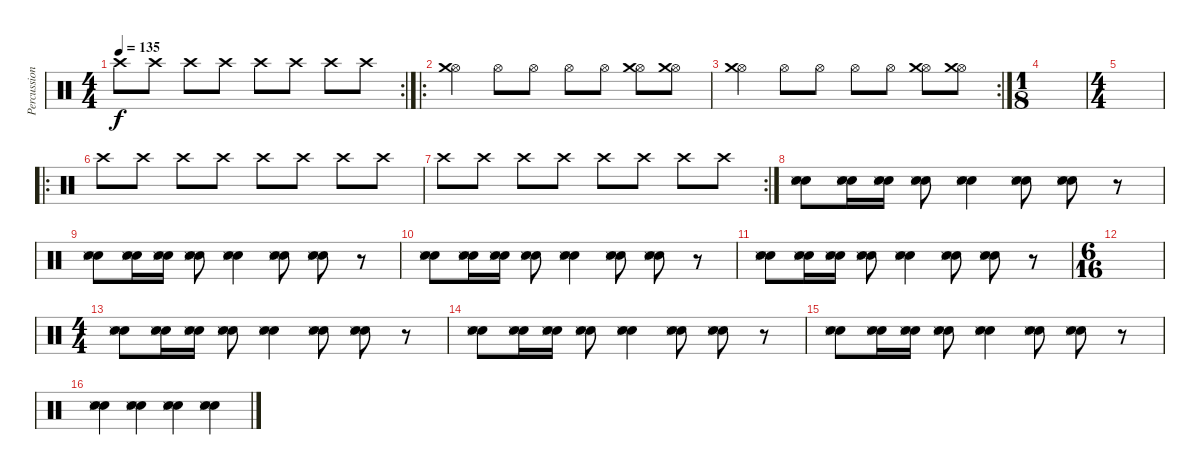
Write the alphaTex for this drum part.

\track ("Percussion" "Percussion") {instrument percussion}
\staff {score}
\articulation defaults
\rc 2
\ts (4 4)
\tempo 135
\clef neutral
\ks c "Crash high (hit)".8{dy f} "Crash high (hit)".8 "Crash high (hit)".8 "Crash high (hit)".8 "Crash high (hit)".8 "Crash high (hit)".8 "Crash high (hit)".8 "Crash high (hit)".8
|
\ro
("Hi-Hat (open)" "Crash medium (hit)").4 "Hi-Hat (open)".8 "Hi-Hat (open)".8 "Hi-Hat (open)".8 "Hi-Hat (open)".8 ("Hi-Hat (open)" "Crash medium (hit)").8 ("Hi-Hat (open)" "Crash medium (hit)").8 |
\rc 2
("Hi-Hat (open)" "Crash medium (hit)").4 "Hi-Hat (open)".8 "Hi-Hat (open)".8 "Hi-Hat (open)".8 "Hi-Hat (open)".8 ("Hi-Hat (open)" "Crash medium (hit)").8 ("Hi-Hat (open)" "Crash medium (hit)").8 |
\ts (1 8)
|
\ts (4 4)
|
\ro "Crash high (hit)".8 "Crash high (hit)".8 "Crash high (hit)".8 "Crash high (hit)".8 "Crash high (hit)".8 "Crash high (hit)".8 "Crash high (hit)".8 "Crash high (hit)".8
|
\rc 2 "Crash high (hit)".8 "Crash high (hit)".8 "Crash high (hit)".8 "Crash high (hit)".8 "Crash high (hit)".8 "Crash high (hit)".8 "Crash high (hit)".8 "Crash high (hit)".8
|
("Snare (hit) 2" "Electric Snare (hit)" "Snare (side stick) 3").8 ("Snare (hit) 2" "Electric Snare (hit)" "Snare (side stick) 3").16 ("Snare (hit) 2" "Electric Snare (hit)" "Snare (side stick) 3").16 ("Snare (hit) 2" "Electric Snare (hit)" "Snare (side stick) 3").8 ("Snare (hit) 2" "Electric Snare (hit)" "Snare (side stick) 3").4 ("Snare (hit) 2" "Electric Snare (hit)" "Snare (side stick) 3").8 ("Snare (hit) 2" "Electric Snare (hit)" "Snare (side stick) 3").8 r.8 |
("Snare (hit) 2" "Electric Snare (hit)" "Snare (side stick) 3").8 ("Snare (hit) 2" "Electric Snare (hit)" "Snare (side stick) 3").16 ("Snare (hit) 2" "Electric Snare (hit)" "Snare (side stick) 3").16 ("Snare (hit) 2" "Electric Snare (hit)" "Snare (side stick) 3").8 ("Snare (hit) 2" "Electric Snare (hit)" "Snare (side stick) 3").4 ("Snare (hit) 2" "Electric Snare (hit)" "Snare (side stick) 3").8 ("Snare (hit) 2" "Electric Snare (hit)" "Snare (side stick) 3").8 r.8 |
("Snare (hit) 2" "Electric Snare (hit)" "Snare (side stick) 3").8 ("Snare (hit) 2" "Electric Snare (hit)" "Snare (side stick) 3").16 ("Snare (hit) 2" "Electric Snare (hit)" "Snare (side stick) 3").16 ("Snare (hit) 2" "Electric Snare (hit)" "Snare (side stick) 3").8 ("Snare (hit) 2" "Electric Snare (hit)" "Snare (side stick) 3").4 ("Snare (hit) 2" "Electric Snare (hit)" "Snare (side stick) 3").8 ("Snare (hit) 2" "Electric Snare (hit)" "Snare (side stick) 3").8 r.8 |
("Snare (hit) 2" "Electric Snare (hit)" "Snare (side stick) 3").8 ("Snare (hit) 2" "Electric Snare (hit)" "Snare (side stick) 3").16 ("Snare (hit) 2" "Electric Snare (hit)" "Snare (side stick) 3").16 ("Snare (hit) 2" "Electric Snare (hit)" "Snare (side stick) 3").8 ("Snare (hit) 2" "Electric Snare (hit)" "Snare (side stick) 3").4 ("Snare (hit) 2" "Electric Snare (hit)" "Snare (side stick) 3").8 ("Snare (hit) 2" "Electric Snare (hit)" "Snare (side stick) 3").8 r.8 |
\ts (6 16)
|
\ts (4 4)
("Snare (hit) 2" "Electric Snare (hit)" "Snare (side stick) 3").8 ("Snare (hit) 2" "Electric Snare (hit)" "Snare (side stick) 3").16 ("Snare (hit) 2" "Electric Snare (hit)" "Snare (side stick) 3").16 ("Snare (hit) 2" "Electric Snare (hit)" "Snare (side stick) 3").8 ("Snare (hit) 2" "Electric Snare (hit)" "Snare (side stick) 3").4 ("Snare (hit) 2" "Electric Snare (hit)" "Snare (side stick) 3").8 ("Snare (hit) 2" "Electric Snare (hit)" "Snare (side stick) 3").8 r.8 |
("Snare (hit) 2" "Electric Snare (hit)" "Snare (side stick) 3").8 ("Snare (hit) 2" "Electric Snare (hit)" "Snare (side stick) 3").16 ("Snare (hit) 2" "Electric Snare (hit)" "Snare (side stick) 3").16 ("Snare (hit) 2" "Electric Snare (hit)" "Snare (side stick) 3").8 ("Snare (hit) 2" "Electric Snare (hit)" "Snare (side stick) 3").4 ("Snare (hit) 2" "Electric Snare (hit)" "Snare (side stick) 3").8 ("Snare (hit) 2" "Electric Snare (hit)" "Snare (side stick) 3").8 r.8 |
("Snare (hit) 2" "Electric Snare (hit)" "Snare (side stick) 3").8 ("Snare (hit) 2" "Electric Snare (hit)" "Snare (side stick) 3").16 ("Snare (hit) 2" "Electric Snare (hit)" "Snare (side stick) 3").16 ("Snare (hit) 2" "Electric Snare (hit)" "Snare (side stick) 3").8 ("Snare (hit) 2" "Electric Snare (hit)" "Snare (side stick) 3").4 ("Snare (hit) 2" "Electric Snare (hit)" "Snare (side stick) 3").8 ("Snare (hit) 2" "Electric Snare (hit)" "Snare (side stick) 3").8 r.8 |
("Snare (hit) 2" "Electric Snare (hit)" "Snare (side stick) 3").4 ("Snare (hit) 2" "Electric Snare (hit)" "Snare (side stick) 3").4 ("Snare (hit) 2" "Electric Snare (hit)" "Snare (side stick) 3").4 ("Snare (hit) 2" "Electric Snare (hit)" "Snare (side stick) 3").4
